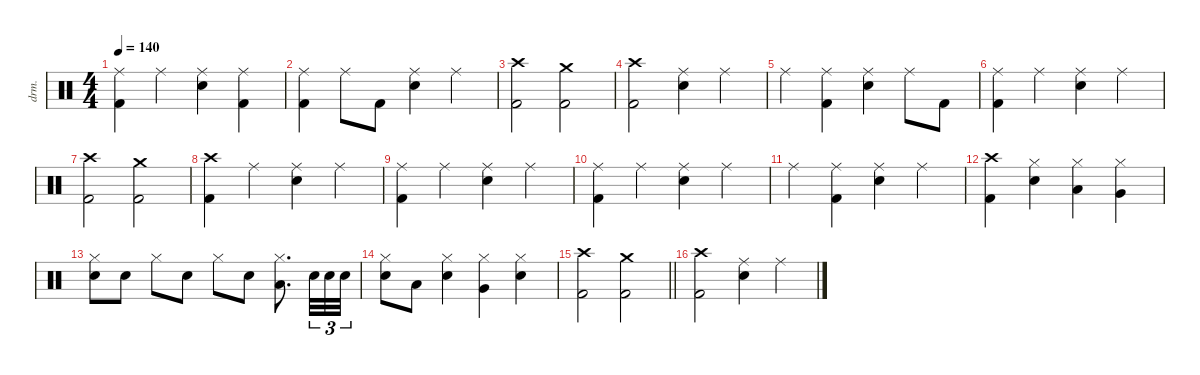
\defaultSystemsLayout 4
\hideDynamics
\bracketExtendMode nobrackets
\otherSystemsTrackNameOrientation horizontal
\track ("Drums" "drm.") {defaultSystemsLayout 4 instrument percussion}
\staff {score}
\articulation defaults
\ts (4 4)
\tempo 140
\clef neutral
\ks c
("Ride (middle)" "Kick (hit) 2").4{dy f beam Down} "Ride (middle)".4{beam Down} ("Ride (middle)" "Snare (hit) 2").4{beam Down} ("Ride (middle)" "Kick (hit) 2").4{beam Down} |
("Ride (middle)" "Kick (hit) 2").4{beam Down} "Ride (middle)".8{beam Down} "Kick (hit) 2".8{beam Down} ("Ride (middle)" "Snare (hit) 2").4{beam Down} "Ride (middle)".4{beam Down} |
("Crash high (hit)" "Kick (hit) 2").2{beam Down} ("Crash medium (hit)" "Kick (hit) 2").2{beam Down} |
("Crash high (hit)" "Kick (hit) 2").2{beam Down} ("Ride (middle)" "Snare (hit) 2").4{beam Down} "Ride (middle)".4{beam Down} |
"Ride (middle)".4{beam Down} ("Ride (middle)" "Kick (hit) 2").4{beam Down} ("Ride (middle)" "Snare (hit) 2").4{beam Down} "Ride (middle)".8{beam Down} "Kick (hit) 2".8{beam Down} |
("Ride (middle)" "Kick (hit) 2").4{beam Down} "Ride (middle)".4{beam Down} ("Ride (middle)" "Snare (hit) 2").4{beam Down} "Ride (middle)".4{beam Down} |
("Crash high (hit)" "Kick (hit) 2").2{beam Down} ("Crash medium (hit)" "Kick (hit) 2").2{beam Down} |
("Crash high (hit)" "Kick (hit) 2").4{beam Down} "Ride (middle)".4{beam Down} ("Ride (middle)" "Snare (hit) 2").4{beam Down} "Ride (middle)".4{beam Down} |
("Ride (middle)" "Kick (hit) 2").4{beam Down} "Ride (middle)".4{beam Down} ("Ride (middle)" "Snare (hit) 2").4{beam Down} "Ride (middle)".4{beam Down} |
("Ride (middle)" "Kick (hit) 2").4{beam Down} "Ride (middle)".4{beam Down} ("Ride (middle)" "Snare (hit) 2").4{beam Down} "Ride (middle)".4{beam Down} |
"Ride (middle)".4{beam Down} ("Ride (middle)" "Kick (hit) 2").4{beam Down} ("Ride (middle)" "Snare (hit) 2").4{beam Down} "Ride (middle)".4{beam Down} |
("Crash high (hit)" "Kick (hit) 2").4{beam Down} ("Hi-Hat (closed)" "Snare (hit) 2").4{beam Down} ("Hi-Hat (closed)" "Low Tom (hit)").4{beam Down} ("Hi-Hat (closed)" "Very Low Tom (hit)").4{beam Down} |
("Hi-Hat (closed)" "Snare (hit) 2").8{beam Down} "Snare (hit) 2".8{beam Down} "Hi-Hat (closed)".8{beam Down} "Snare (hit) 2".8{beam Down} "Hi-Hat (closed)".8{beam Down} "Snare (hit) 2".8{beam Down} ("Hi-Hat (closed)" "Low Tom (hit)").8{d beam Down} "Snare (hit) 2".32{tu (3 2) dy mp beam Down} "Snare (hit) 2".32{tu (3 2) dy mf beam Down} "Snare (hit) 2".32{tu (3 2) dy f beam Down} |
("Hi-Hat (closed)" "Snare (hit) 2").8{beam Down} "Low Tom (hit)".8{beam Down} ("Hi-Hat (closed)" "Snare (hit) 2").4{beam Down} ("Hi-Hat (closed)" "Very Low Tom (hit)").4{beam Down} ("Hi-Hat (closed)" "Snare (hit) 2").4{beam Down} |
\barLineRight lightlight
("Crash high (hit)" "Kick (hit) 2").2{beam Down} ("Crash medium (hit)" "Kick (hit) 2").2{beam Down} |
("Crash high (hit)" "Kick (hit) 2").2{beam Down} ("Ride (middle)" "Snare (hit) 2").4{beam Down} "Ride (middle)".4{beam Down}
